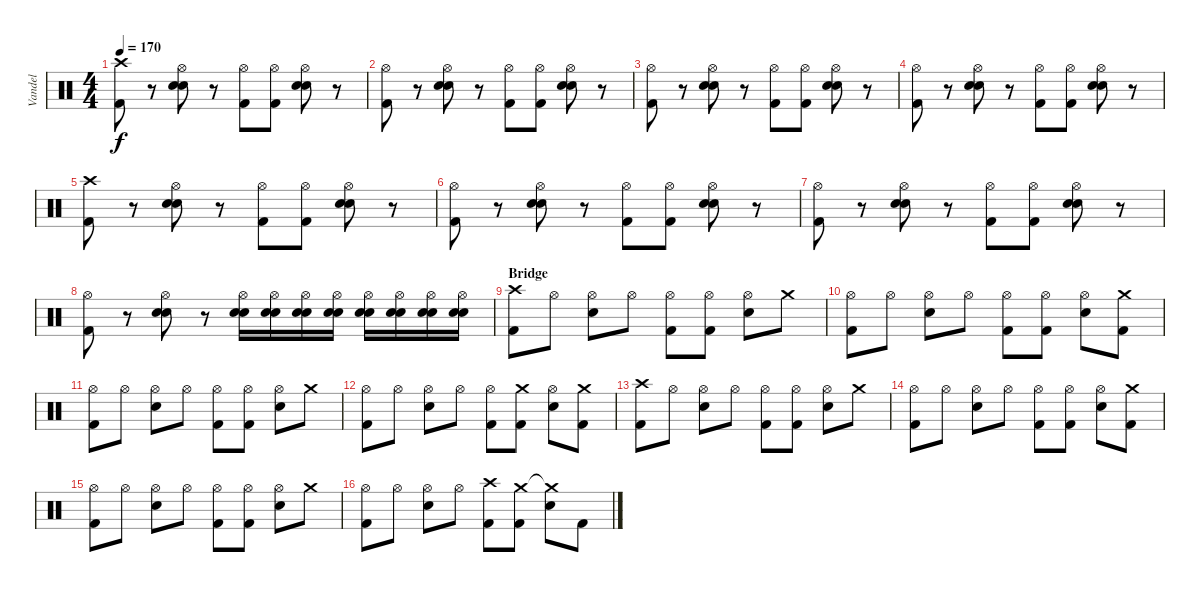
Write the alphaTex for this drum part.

\track ("Vandel" "Vandel") {instrument percussion}
\staff {score}
\articulation defaults
\ts (4 4)
\tempo 170
\clef neutral
\ks c
("Crash high (hit)" "Kick (hit) 2").8{dy f} r.8 ("Hi-Hat (open)" "Electric Snare (hit)" "Electric Snare (hit)").8 r.8 ("Hi-Hat (open)" "Kick (hit) 2").8 ("Hi-Hat (open)" "Kick (hit) 2").8 ("Hi-Hat (open)" "Electric Snare (hit)" "Electric Snare (hit)").8 r.8 |
("Hi-Hat (open)" "Kick (hit) 2").8 r.8 ("Hi-Hat (open)" "Electric Snare (hit)" "Electric Snare (hit)").8 r.8 ("Hi-Hat (open)" "Kick (hit) 2").8 ("Hi-Hat (open)" "Kick (hit) 2").8 ("Hi-Hat (open)" "Electric Snare (hit)" "Electric Snare (hit)").8 r.8 |
("Hi-Hat (open)" "Kick (hit) 2").8 r.8 ("Hi-Hat (open)" "Electric Snare (hit)" "Electric Snare (hit)").8 r.8 ("Hi-Hat (open)" "Kick (hit) 2").8 ("Hi-Hat (open)" "Kick (hit) 2").8 ("Hi-Hat (open)" "Electric Snare (hit)" "Electric Snare (hit)").8 r.8 |
("Hi-Hat (open)" "Kick (hit) 2").8 r.8 ("Hi-Hat (open)" "Electric Snare (hit)" "Electric Snare (hit)").8 r.8 ("Hi-Hat (open)" "Kick (hit) 2").8 ("Hi-Hat (open)" "Kick (hit) 2").8 ("Hi-Hat (open)" "Electric Snare (hit)" "Electric Snare (hit)").8 r.8 |
("Crash high (hit)" "Kick (hit) 2").8 r.8 ("Hi-Hat (open)" "Electric Snare (hit)" "Electric Snare (hit)").8 r.8 ("Hi-Hat (open)" "Kick (hit) 2").8 ("Hi-Hat (open)" "Kick (hit) 2").8 ("Hi-Hat (open)" "Electric Snare (hit)" "Electric Snare (hit)").8 r.8 |
("Hi-Hat (open)" "Kick (hit) 2").8 r.8 ("Hi-Hat (open)" "Electric Snare (hit)" "Electric Snare (hit)").8 r.8 ("Hi-Hat (open)" "Kick (hit) 2").8 ("Hi-Hat (open)" "Kick (hit) 2").8 ("Hi-Hat (open)" "Electric Snare (hit)" "Electric Snare (hit)").8 r.8 |
("Hi-Hat (open)" "Kick (hit) 2").8 r.8 ("Hi-Hat (open)" "Electric Snare (hit)" "Electric Snare (hit)").8 r.8 ("Hi-Hat (open)" "Kick (hit) 2").8 ("Hi-Hat (open)" "Kick (hit) 2").8 ("Hi-Hat (open)" "Electric Snare (hit)" "Electric Snare (hit)").8 r.8 |
("Hi-Hat (open)" "Kick (hit) 2").8 r.8 ("Hi-Hat (open)" "Electric Snare (hit)" "Electric Snare (hit)").8 r.8 ("Hi-Hat (open)" "Electric Snare (hit)" "Electric Snare (hit)").16 ("Hi-Hat (open)" "Electric Snare (hit)" "Electric Snare (hit)").16 ("Hi-Hat (open)" "Electric Snare (hit)" "Electric Snare (hit)").16 ("Hi-Hat (open)" "Electric Snare (hit)" "Electric Snare (hit)").16 ("Hi-Hat (open)" "Electric Snare (hit)" "Electric Snare (hit)").16 ("Hi-Hat (open)" "Electric Snare (hit)" "Electric Snare (hit)").16 ("Hi-Hat (open)" "Electric Snare (hit)" "Electric Snare (hit)").16 ("Hi-Hat (open)" "Electric Snare (hit)" "Electric Snare (hit)").16 |
\section ("" "Bridge")
("Crash high (hit)" "Kick (hit) 2").8 "Hi-Hat (open)".8 ("Hi-Hat (open)" "Electric Snare (hit)").8 "Hi-Hat (open)".8 ("Hi-Hat (open)" "Kick (hit) 2").8 ("Hi-Hat (open)" "Kick (hit) 2").8 ("Hi-Hat (open)" "Electric Snare (hit)").8 "Crash medium (hit)".8 |
("Hi-Hat (open)" "Kick (hit) 2").8 "Hi-Hat (open)".8 ("Hi-Hat (open)" "Electric Snare (hit)").8 "Hi-Hat (open)".8 ("Hi-Hat (open)" "Kick (hit) 2").8 ("Hi-Hat (open)" "Kick (hit) 2").8 ("Hi-Hat (open)" "Electric Snare (hit)").8 ("Crash medium (hit)" "Kick (hit) 2").8 |
("Hi-Hat (open)" "Kick (hit) 2").8 "Hi-Hat (open)".8 ("Hi-Hat (open)" "Electric Snare (hit)").8 "Hi-Hat (open)".8 ("Hi-Hat (open)" "Kick (hit) 2").8 ("Hi-Hat (open)" "Kick (hit) 2").8 ("Hi-Hat (open)" "Electric Snare (hit)").8 "Crash medium (hit)".8 |
("Hi-Hat (open)" "Kick (hit) 2").8 "Hi-Hat (open)".8 ("Hi-Hat (open)" "Electric Snare (hit)").8 "Hi-Hat (open)".8 ("Hi-Hat (open)" "Kick (hit) 2").8 ("Crash medium (hit)" "Kick (hit) 2").8 ("Hi-Hat (open)" "Electric Snare (hit)").8 ("Crash medium (hit)" "Kick (hit) 2").8 |
("Crash high (hit)" "Kick (hit) 2").8 "Hi-Hat (open)".8 ("Hi-Hat (open)" "Electric Snare (hit)").8 "Hi-Hat (open)".8 ("Hi-Hat (open)" "Kick (hit) 2").8 ("Hi-Hat (open)" "Kick (hit) 2").8 ("Hi-Hat (open)" "Electric Snare (hit)").8 "Crash medium (hit)".8 |
("Hi-Hat (open)" "Kick (hit) 2").8 "Hi-Hat (open)".8 ("Hi-Hat (open)" "Electric Snare (hit)").8 "Hi-Hat (open)".8 ("Hi-Hat (open)" "Kick (hit) 2").8 ("Hi-Hat (open)" "Kick (hit) 2").8 ("Hi-Hat (open)" "Electric Snare (hit)").8 ("Crash medium (hit)" "Kick (hit) 2").8 |
("Hi-Hat (open)" "Kick (hit) 2").8 "Hi-Hat (open)".8 ("Hi-Hat (open)" "Electric Snare (hit)").8 "Hi-Hat (open)".8 ("Hi-Hat (open)" "Kick (hit) 2").8 ("Hi-Hat (open)" "Kick (hit) 2").8 ("Hi-Hat (open)" "Electric Snare (hit)").8 "Crash medium (hit)".8 |
("Hi-Hat (open)" "Kick (hit) 2").8 "Hi-Hat (open)".8 ("Hi-Hat (open)" "Electric Snare (hit)").8 "Hi-Hat (open)".8 ("Crash high (hit)" "Kick (hit) 2").8 ("Crash medium (hit)" "Kick (hit) 2").8 ("Crash medium (hit)"{t} "Electric Snare (hit)").8 "Kick (hit) 2".8
